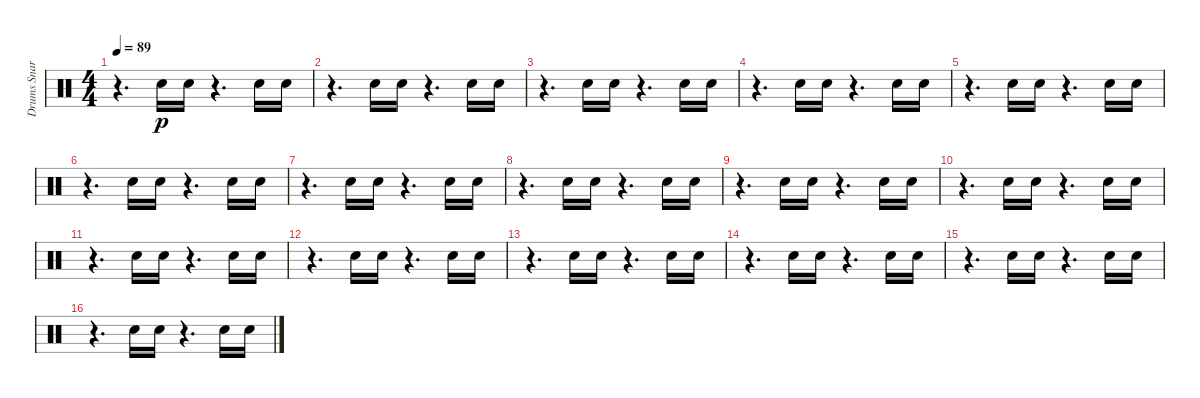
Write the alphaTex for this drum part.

\track ("Drums Snare" "Drums Snar") {instrument percussion}
\staff {score}
\articulation defaults
\ts (4 4)
\tempo 89
\clef neutral
\ks c
r.4{d dy p} "Snare (hit) 2".16 "Snare (hit) 2".16 r.4{d} "Snare (hit) 2".16 "Snare (hit) 2".16 |
r.4{d} "Snare (hit) 2".16 "Snare (hit) 2".16 r.4{d} "Snare (hit) 2".16 "Snare (hit) 2".16 |
r.4{d} "Snare (hit) 2".16 "Snare (hit) 2".16 r.4{d} "Snare (hit) 2".16 "Snare (hit) 2".16 |
r.4{d} "Snare (hit) 2".16 "Snare (hit) 2".16 r.4{d} "Snare (hit) 2".16 "Snare (hit) 2".16 |
r.4{d} "Snare (hit) 2".16 "Snare (hit) 2".16 r.4{d} "Snare (hit) 2".16 "Snare (hit) 2".16 |
r.4{d} "Snare (hit) 2".16 "Snare (hit) 2".16 r.4{d} "Snare (hit) 2".16 "Snare (hit) 2".16 |
r.4{d} "Snare (hit) 2".16 "Snare (hit) 2".16 r.4{d} "Snare (hit) 2".16 "Snare (hit) 2".16 |
r.4{d} "Snare (hit) 2".16 "Snare (hit) 2".16 r.4{d} "Snare (hit) 2".16 "Snare (hit) 2".16 |
r.4{d} "Snare (hit) 2".16 "Snare (hit) 2".16 r.4{d} "Snare (hit) 2".16 "Snare (hit) 2".16 |
r.4{d} "Snare (hit) 2".16 "Snare (hit) 2".16 r.4{d} "Snare (hit) 2".16 "Snare (hit) 2".16 |
r.4{d} "Snare (hit) 2".16 "Snare (hit) 2".16 r.4{d} "Snare (hit) 2".16 "Snare (hit) 2".16 |
r.4{d} "Snare (hit) 2".16 "Snare (hit) 2".16 r.4{d} "Snare (hit) 2".16 "Snare (hit) 2".16 |
r.4{d} "Snare (hit) 2".16 "Snare (hit) 2".16 r.4{d} "Snare (hit) 2".16 "Snare (hit) 2".16 |
r.4{d} "Snare (hit) 2".16 "Snare (hit) 2".16 r.4{d} "Snare (hit) 2".16 "Snare (hit) 2".16 |
r.4{d} "Snare (hit) 2".16 "Snare (hit) 2".16 r.4{d} "Snare (hit) 2".16 "Snare (hit) 2".16 |
r.4{d} "Snare (hit) 2".16 "Snare (hit) 2".16 r.4{d} "Snare (hit) 2".16 "Snare (hit) 2".16
